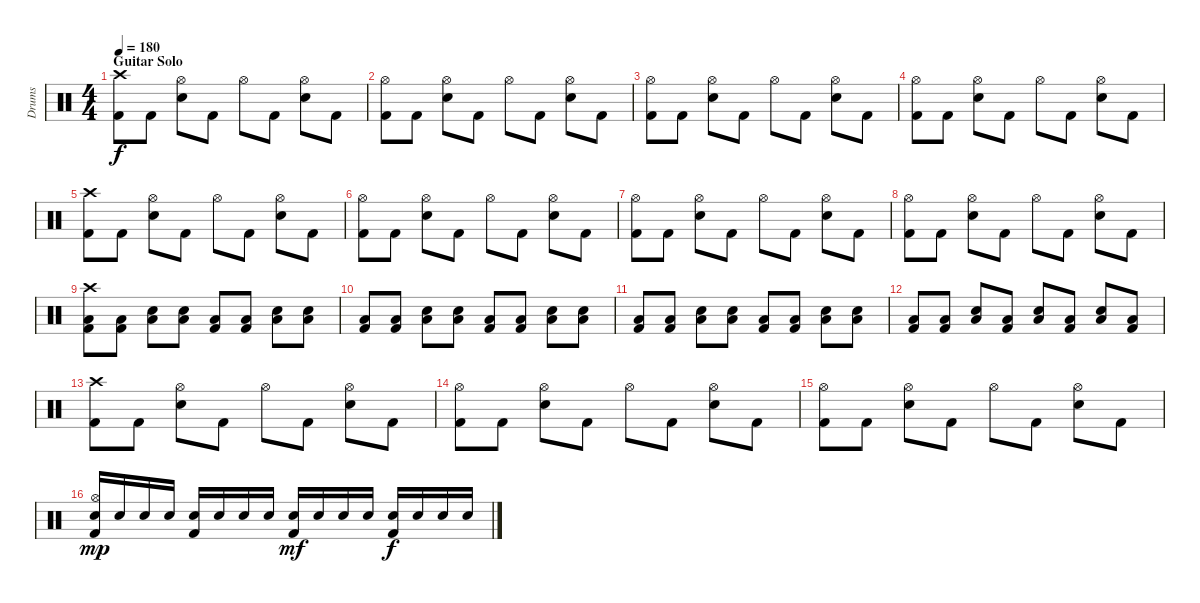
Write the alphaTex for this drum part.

\track ("Drums" "Drums") {instrument percussion}
\staff {score}
\articulation defaults
\ts (4 4)
\section ("" "Guitar Solo")
\tempo 180
\clef neutral
\ks c
("Crash high (hit)" "Kick (hit) 2").8{dy f} "Kick (hit) 2".8 ("Hi-Hat (open)" "Electric Snare (hit)").8 "Kick (hit) 2".8 "Hi-Hat (open)".8 "Kick (hit) 2".8 ("Hi-Hat (open)" "Electric Snare (hit)").8 "Kick (hit) 2".8 |
("Hi-Hat (open)" "Kick (hit) 2").8 "Kick (hit) 2".8 ("Hi-Hat (open)" "Electric Snare (hit)").8 "Kick (hit) 2".8 "Hi-Hat (open)".8 "Kick (hit) 2".8 ("Hi-Hat (open)" "Electric Snare (hit)").8 "Kick (hit) 2".8 |
("Hi-Hat (open)" "Kick (hit) 2").8 "Kick (hit) 2".8 ("Hi-Hat (open)" "Electric Snare (hit)").8 "Kick (hit) 2".8 "Hi-Hat (open)".8 "Kick (hit) 2".8 ("Hi-Hat (open)" "Electric Snare (hit)").8 "Kick (hit) 2".8 |
("Hi-Hat (open)" "Kick (hit) 2").8 "Kick (hit) 2".8 ("Hi-Hat (open)" "Electric Snare (hit)").8 "Kick (hit) 2".8 "Hi-Hat (open)".8 "Kick (hit) 2".8 ("Hi-Hat (open)" "Electric Snare (hit)").8 "Kick (hit) 2".8 |
("Crash high (hit)" "Kick (hit) 2").8 "Kick (hit) 2".8 ("Hi-Hat (open)" "Electric Snare (hit)").8 "Kick (hit) 2".8 "Hi-Hat (open)".8 "Kick (hit) 2".8 ("Hi-Hat (open)" "Electric Snare (hit)").8 "Kick (hit) 2".8 |
("Hi-Hat (open)" "Kick (hit) 2").8 "Kick (hit) 2".8 ("Hi-Hat (open)" "Electric Snare (hit)").8 "Kick (hit) 2".8 "Hi-Hat (open)".8 "Kick (hit) 2".8 ("Hi-Hat (open)" "Electric Snare (hit)").8 "Kick (hit) 2".8 |
("Hi-Hat (open)" "Kick (hit) 2").8 "Kick (hit) 2".8 ("Hi-Hat (open)" "Electric Snare (hit)").8 "Kick (hit) 2".8 "Hi-Hat (open)".8 "Kick (hit) 2".8 ("Hi-Hat (open)" "Electric Snare (hit)").8 "Kick (hit) 2".8 |
("Hi-Hat (open)" "Kick (hit) 2").8 "Kick (hit) 2".8 ("Hi-Hat (open)" "Electric Snare (hit)").8 "Kick (hit) 2".8 "Hi-Hat (open)".8 "Kick (hit) 2".8 ("Hi-Hat (open)" "Electric Snare (hit)").8 "Kick (hit) 2".8 |
("Crash high (hit)" "Kick (hit) 2" "Low Floor Tom (hit)").8 ("Kick (hit) 2" "Low Floor Tom (hit)").8 ("Electric Snare (hit)" "Low Floor Tom (hit)").8 ("Electric Snare (hit)" "Low Floor Tom (hit)").8 ("Kick (hit) 2" "Low Floor Tom (hit)").8 ("Kick (hit) 2" "Low Floor Tom (hit)").8 ("Electric Snare (hit)" "Low Floor Tom (hit)").8 ("Electric Snare (hit)" "Low Floor Tom (hit)").8 |
("Kick (hit) 2" "Low Floor Tom (hit)").8 ("Kick (hit) 2" "Low Floor Tom (hit)").8 ("Electric Snare (hit)" "Low Floor Tom (hit)").8 ("Electric Snare (hit)" "Low Floor Tom (hit)").8 ("Kick (hit) 2" "Low Floor Tom (hit)").8 ("Kick (hit) 2" "Low Floor Tom (hit)").8 ("Electric Snare (hit)" "Low Floor Tom (hit)").8 ("Electric Snare (hit)" "Low Floor Tom (hit)").8 |
("Kick (hit) 2" "Low Floor Tom (hit)").8 ("Kick (hit) 2" "Low Floor Tom (hit)").8 ("Electric Snare (hit)" "Low Floor Tom (hit)").8 ("Electric Snare (hit)" "Low Floor Tom (hit)").8 ("Kick (hit) 2" "Low Floor Tom (hit)").8 ("Kick (hit) 2" "Low Floor Tom (hit)").8 ("Electric Snare (hit)" "Low Floor Tom (hit)").8 ("Electric Snare (hit)" "Low Floor Tom (hit)").8 |
("Kick (hit) 2" "Low Floor Tom (hit)").8 ("Kick (hit) 2" "Low Floor Tom (hit)").8 ("Electric Snare (hit)" "Low Floor Tom (hit)").8 ("Kick (hit) 2" "Low Floor Tom (hit)").8 ("Electric Snare (hit)" "Low Floor Tom (hit)").8 ("Kick (hit) 2" "Low Floor Tom (hit)").8 ("Electric Snare (hit)" "Low Floor Tom (hit)").8 ("Kick (hit) 2" "Low Floor Tom (hit)").8 |
("Crash high (hit)" "Kick (hit) 2").8 "Kick (hit) 2".8 ("Hi-Hat (open)" "Electric Snare (hit)").8 "Kick (hit) 2".8 "Hi-Hat (open)".8 "Kick (hit) 2".8 ("Hi-Hat (open)" "Electric Snare (hit)").8 "Kick (hit) 2".8 |
("Hi-Hat (open)" "Kick (hit) 2").8 "Kick (hit) 2".8 ("Hi-Hat (open)" "Electric Snare (hit)").8 "Kick (hit) 2".8 "Hi-Hat (open)".8 "Kick (hit) 2".8 ("Hi-Hat (open)" "Electric Snare (hit)").8 "Kick (hit) 2".8 |
("Hi-Hat (open)" "Kick (hit) 2").8 "Kick (hit) 2".8 ("Hi-Hat (open)" "Electric Snare (hit)").8 "Kick (hit) 2".8 "Hi-Hat (open)".8 "Kick (hit) 2".8 ("Hi-Hat (open)" "Electric Snare (hit)").8 "Kick (hit) 2".8 |
("Hi-Hat (open)" "Electric Snare (hit)" "Kick (hit) 2").16{dy mp} "Electric Snare (hit)".16 "Electric Snare (hit)".16 "Electric Snare (hit)".16 ("Electric Snare (hit)" "Kick (hit) 2").16 "Electric Snare (hit)".16 "Electric Snare (hit)".16 "Electric Snare (hit)".16 ("Electric Snare (hit)" "Kick (hit) 2").16{dy mf} "Electric Snare (hit)".16 "Electric Snare (hit)".16 "Electric Snare (hit)".16 ("Electric Snare (hit)" "Kick (hit) 2").16{dy f} "Electric Snare (hit)".16 "Electric Snare (hit)".16 "Electric Snare (hit)".16
